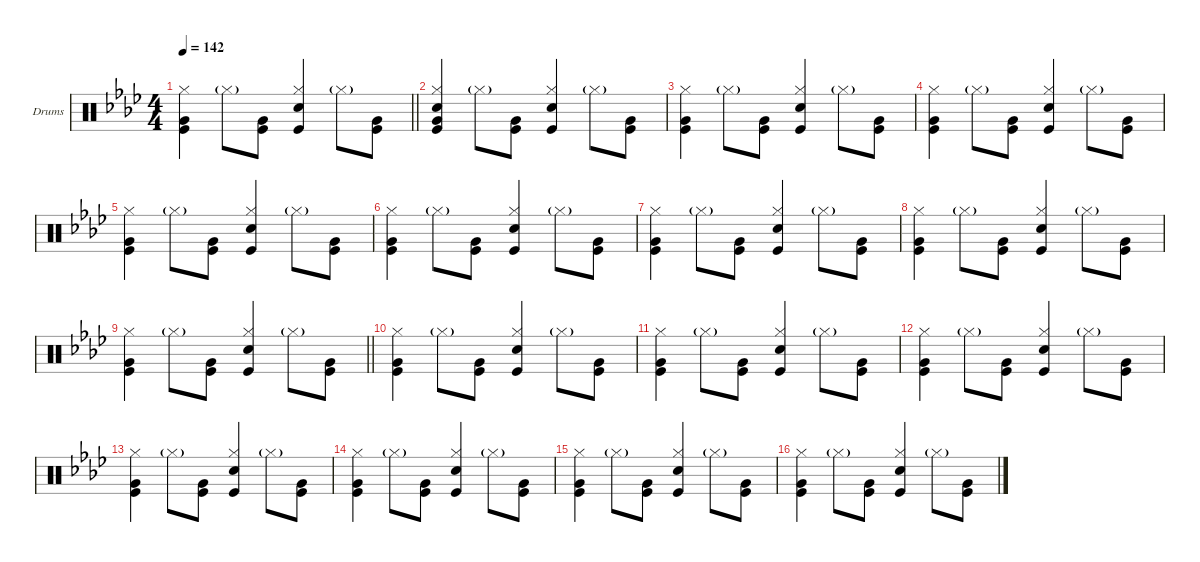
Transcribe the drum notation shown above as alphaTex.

\defaultSystemsLayout 4
\hideDynamics
\bracketExtendMode groupsimilarinstruments
\firstSystemTrackNameOrientation horizontal
\otherSystemsTrackNameOrientation horizontal
\track ("Drumkit" "Drums") {multiBarRest instrument percussion}
\staff {score}
\articulation defaults
\ts (4 4)
\tempo 142
\clef neutral
\barLineRight lightlight
\ks ab
("Very Low Tom (hit)" "Kick (hit)" "Hi-Hat (closed)").4{dy fff} "Hi-Hat (closed)"{g}.8 ("Very Low Tom (hit)" "Kick (hit)").8 ("Snare (hit) 2" "Kick (hit)" "Hi-Hat (closed)").4 "Hi-Hat (closed)"{g}.8 ("Very Low Tom (hit)" "Kick (hit)").8 |
("Very Low Tom (hit)" "Kick (hit)" "Hi-Hat (closed)" "Snare (hit) 2").4 "Hi-Hat (closed)"{g}.8 ("Very Low Tom (hit)" "Kick (hit)").8 ("Snare (hit) 2" "Kick (hit)" "Hi-Hat (closed)").4 "Hi-Hat (closed)"{g}.8 ("Very Low Tom (hit)" "Kick (hit)").8 |
("Very Low Tom (hit)" "Kick (hit)" "Hi-Hat (closed)").4 "Hi-Hat (closed)"{g}.8 ("Very Low Tom (hit)" "Kick (hit)").8 ("Snare (hit) 2" "Kick (hit)" "Hi-Hat (closed)").4 "Hi-Hat (closed)"{g}.8 ("Very Low Tom (hit)" "Kick (hit)").8 |
("Very Low Tom (hit)" "Kick (hit)" "Hi-Hat (closed)").4 "Hi-Hat (closed)"{g}.8 ("Very Low Tom (hit)" "Kick (hit)").8 ("Snare (hit) 2" "Kick (hit)" "Hi-Hat (closed)").4 "Hi-Hat (closed)"{g}.8 ("Very Low Tom (hit)" "Kick (hit)").8 |
("Very Low Tom (hit)" "Kick (hit)" "Hi-Hat (closed)").4 "Hi-Hat (closed)"{g}.8 ("Very Low Tom (hit)" "Kick (hit)").8 ("Snare (hit) 2" "Kick (hit)" "Hi-Hat (closed)").4 "Hi-Hat (closed)"{g}.8 ("Very Low Tom (hit)" "Kick (hit)").8 |
("Very Low Tom (hit)" "Kick (hit)" "Hi-Hat (closed)").4 "Hi-Hat (closed)"{g}.8 ("Very Low Tom (hit)" "Kick (hit)").8 ("Snare (hit) 2" "Kick (hit)" "Hi-Hat (closed)").4 "Hi-Hat (closed)"{g}.8 ("Very Low Tom (hit)" "Kick (hit)").8 |
("Very Low Tom (hit)" "Kick (hit)" "Hi-Hat (closed)").4 "Hi-Hat (closed)"{g}.8 ("Very Low Tom (hit)" "Kick (hit)").8 ("Snare (hit) 2" "Kick (hit)" "Hi-Hat (closed)").4 "Hi-Hat (closed)"{g}.8 ("Very Low Tom (hit)" "Kick (hit)").8 |
("Very Low Tom (hit)" "Kick (hit)" "Hi-Hat (closed)").4 "Hi-Hat (closed)"{g}.8 ("Very Low Tom (hit)" "Kick (hit)").8 ("Snare (hit) 2" "Kick (hit)" "Hi-Hat (closed)").4 "Hi-Hat (closed)"{g}.8 ("Very Low Tom (hit)" "Kick (hit)").8 |
\barLineRight lightlight
("Very Low Tom (hit)" "Kick (hit)" "Hi-Hat (closed)").4 "Hi-Hat (closed)"{g}.8 ("Very Low Tom (hit)" "Kick (hit)").8 ("Snare (hit) 2" "Kick (hit)" "Hi-Hat (closed)").4 "Hi-Hat (closed)"{g}.8 ("Very Low Tom (hit)" "Kick (hit)").8 |
("Very Low Tom (hit)" "Kick (hit)" "Hi-Hat (closed)").4 "Hi-Hat (closed)"{g}.8 ("Very Low Tom (hit)" "Kick (hit)").8 ("Snare (hit) 2" "Kick (hit)" "Hi-Hat (closed)").4 "Hi-Hat (closed)"{g}.8 ("Very Low Tom (hit)" "Kick (hit)").8 |
("Very Low Tom (hit)" "Kick (hit)" "Hi-Hat (closed)").4 "Hi-Hat (closed)"{g}.8 ("Very Low Tom (hit)" "Kick (hit)").8 ("Snare (hit) 2" "Kick (hit)" "Hi-Hat (closed)").4 "Hi-Hat (closed)"{g}.8 ("Very Low Tom (hit)" "Kick (hit)").8 |
("Very Low Tom (hit)" "Kick (hit)" "Hi-Hat (closed)").4 "Hi-Hat (closed)"{g}.8 ("Very Low Tom (hit)" "Kick (hit)").8 ("Snare (hit) 2" "Kick (hit)" "Hi-Hat (closed)").4 "Hi-Hat (closed)"{g}.8 ("Very Low Tom (hit)" "Kick (hit)").8 |
("Very Low Tom (hit)" "Kick (hit)" "Hi-Hat (closed)").4 "Hi-Hat (closed)"{g}.8 ("Very Low Tom (hit)" "Kick (hit)").8 ("Snare (hit) 2" "Kick (hit)" "Hi-Hat (closed)").4 "Hi-Hat (closed)"{g}.8 ("Very Low Tom (hit)" "Kick (hit)").8 |
("Very Low Tom (hit)" "Kick (hit)" "Hi-Hat (closed)").4 "Hi-Hat (closed)"{g}.8 ("Very Low Tom (hit)" "Kick (hit)").8 ("Snare (hit) 2" "Kick (hit)" "Hi-Hat (closed)").4 "Hi-Hat (closed)"{g}.8 ("Very Low Tom (hit)" "Kick (hit)").8 |
("Very Low Tom (hit)" "Kick (hit)" "Hi-Hat (closed)").4 "Hi-Hat (closed)"{g}.8 ("Very Low Tom (hit)" "Kick (hit)").8 ("Snare (hit) 2" "Kick (hit)" "Hi-Hat (closed)").4 "Hi-Hat (closed)"{g}.8 ("Very Low Tom (hit)" "Kick (hit)").8 |
("Very Low Tom (hit)" "Kick (hit)" "Hi-Hat (closed)").4 "Hi-Hat (closed)"{g}.8 ("Very Low Tom (hit)" "Kick (hit)").8 ("Snare (hit) 2" "Kick (hit)" "Hi-Hat (closed)").4 "Hi-Hat (closed)"{g}.8 ("Very Low Tom (hit)" "Kick (hit)").8
